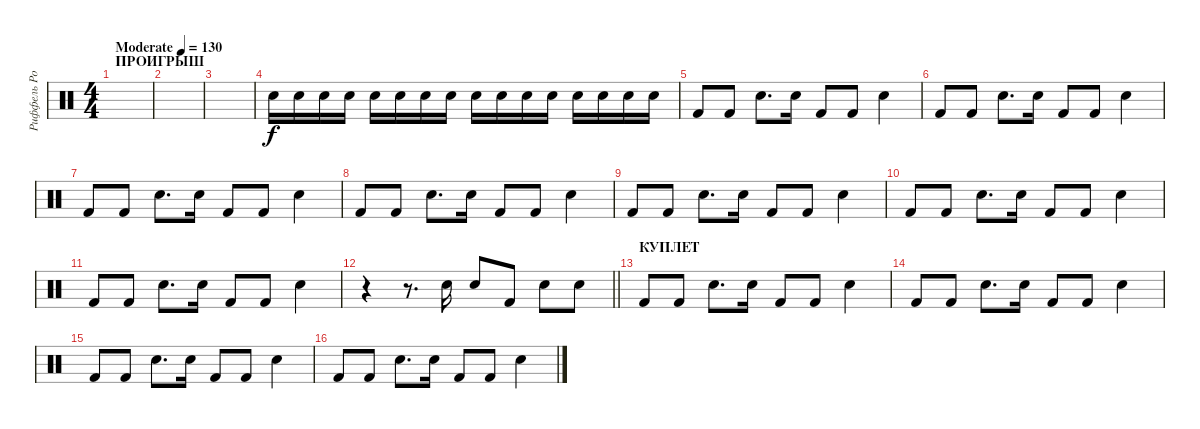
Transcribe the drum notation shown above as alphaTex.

\track ("Риффель Роман (главные)" "Риффель Ро") {instrument percussion}
\staff {score}
\articulation defaults
\ts (4 4)
\section ("" "ПРОИГРЫШ")
\tempo (130 "Moderate")
\clef neutral
\ks c
|
|
|
"Electric Snare (hit)".16 "Electric Snare (hit)".16 "Electric Snare (hit)".16 "Electric Snare (hit)".16 "Electric Snare (hit)".16 "Electric Snare (hit)".16 "Electric Snare (hit)".16 "Electric Snare (hit)".16 "Electric Snare (hit)".16 "Electric Snare (hit)".16 "Electric Snare (hit)".16 "Electric Snare (hit)".16 "Electric Snare (hit)".16 "Electric Snare (hit)".16 "Electric Snare (hit)".16 "Electric Snare (hit)".16 |
"Kick (hit) 2".8 "Kick (hit) 2".8 "Electric Snare (hit)".8{d} "Electric Snare (hit)".16 "Kick (hit) 2".8 "Kick (hit) 2".8 "Electric Snare (hit)".4 |
"Kick (hit) 2".8 "Kick (hit) 2".8 "Electric Snare (hit)".8{d} "Electric Snare (hit)".16 "Kick (hit) 2".8 "Kick (hit) 2".8 "Electric Snare (hit)".4 |
"Kick (hit) 2".8 "Kick (hit) 2".8 "Electric Snare (hit)".8{d} "Electric Snare (hit)".16 "Kick (hit) 2".8 "Kick (hit) 2".8 "Electric Snare (hit)".4 |
"Kick (hit) 2".8 "Kick (hit) 2".8 "Electric Snare (hit)".8{d} "Electric Snare (hit)".16 "Kick (hit) 2".8 "Kick (hit) 2".8 "Electric Snare (hit)".4 |
"Kick (hit) 2".8 "Kick (hit) 2".8 "Electric Snare (hit)".8{d} "Electric Snare (hit)".16 "Kick (hit) 2".8 "Kick (hit) 2".8 "Electric Snare (hit)".4 |
"Kick (hit) 2".8 "Kick (hit) 2".8 "Electric Snare (hit)".8{d} "Electric Snare (hit)".16 "Kick (hit) 2".8 "Kick (hit) 2".8 "Electric Snare (hit)".4 |
"Kick (hit) 2".8 "Kick (hit) 2".8 "Electric Snare (hit)".8{d} "Electric Snare (hit)".16 "Kick (hit) 2".8 "Kick (hit) 2".8 "Electric Snare (hit)".4 |
\barLineRight lightlight
r.4 r.8{d} "Electric Snare (hit)".16 "Electric Snare (hit)".8 "Kick (hit) 2".8 "Electric Snare (hit)".8 "Electric Snare (hit)".8 |
\section ("" "КУПЛЕТ")
"Kick (hit) 2".8 "Kick (hit) 2".8 "Electric Snare (hit)".8{d} "Electric Snare (hit)".16 "Kick (hit) 2".8 "Kick (hit) 2".8 "Electric Snare (hit)".4 |
"Kick (hit) 2".8 "Kick (hit) 2".8 "Electric Snare (hit)".8{d} "Electric Snare (hit)".16 "Kick (hit) 2".8 "Kick (hit) 2".8 "Electric Snare (hit)".4 |
"Kick (hit) 2".8 "Kick (hit) 2".8 "Electric Snare (hit)".8{d} "Electric Snare (hit)".16 "Kick (hit) 2".8 "Kick (hit) 2".8 "Electric Snare (hit)".4 |
"Kick (hit) 2".8 "Kick (hit) 2".8 "Electric Snare (hit)".8{d} "Electric Snare (hit)".16 "Kick (hit) 2".8 "Kick (hit) 2".8 "Electric Snare (hit)".4
